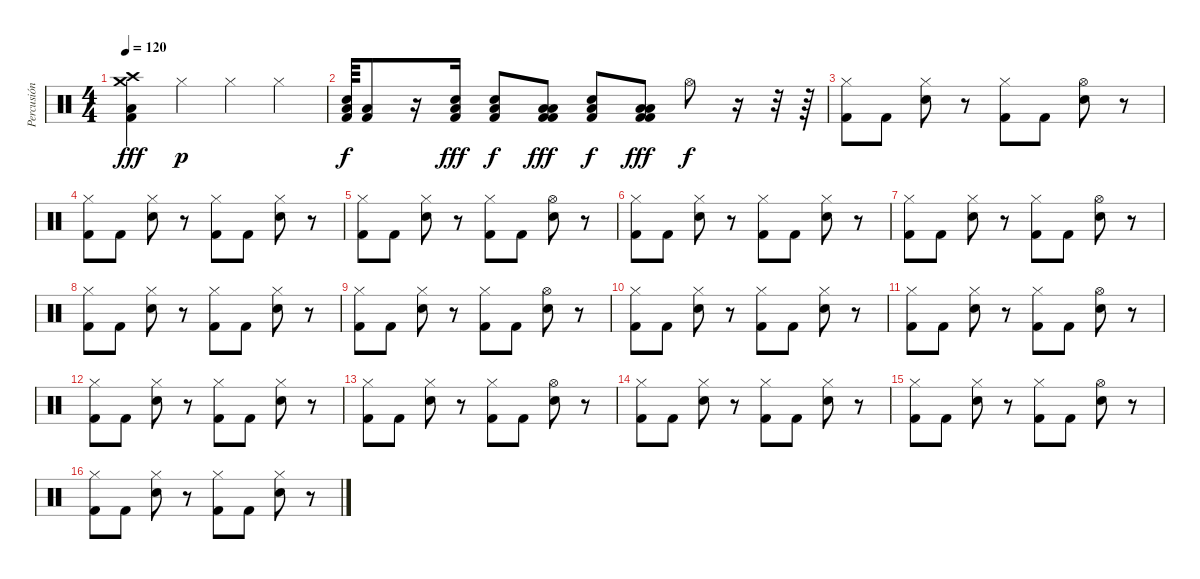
\track ("Percusión" "Percusión") {instrument percussion}
\staff {score}
\articulation defaults
\ts (4 4)
\tempo 120
\clef neutral
\ks c
("Crash high (hit)" "Crash medium (hit)" "Kick (hit) 2" "Low Tom (hit)").4{dy fff} "Hi-Hat (closed)".4{dy p} "Hi-Hat (closed)".4 "Hi-Hat (closed)".4 |
("Electric Snare (hit)" "Low Tom (hit)" "Kick (hit) 2").64{dy f} ("Low Tom (hit)" "Kick (hit) 2").8 r.16 ("Electric Snare (hit)" "Low Tom (hit)" "Kick (hit) 2").16{dy fff} ("Electric Snare (hit)" "Kick (hit) 2" "Low Tom (hit)").8{dy f} ("Kick (hit) 2" "Low Tom (hit)" "Kick (hit) 2" "Low Tom (hit)").8{dy fff} ("Electric Snare (hit)" "Kick (hit) 2" "Low Tom (hit)").8{dy f} ("Low Tom (hit)" "Kick (hit) 2" "Low Tom (hit)" "Kick (hit) 2").8{dy fff} "Hi-Hat (open)".8{dy f} r.16 r.32 r.64 |
("Hi-Hat (closed)" "Kick (hit) 2").8 "Kick (hit) 2".8 ("Electric Snare (hit)" "Hi-Hat (closed)").8 r.8 ("Hi-Hat (closed)" "Kick (hit) 2").8 "Kick (hit) 2".8 ("Electric Snare (hit)" "Hi-Hat (open)").8 r.8 |
("Hi-Hat (closed)" "Kick (hit) 2").8 "Kick (hit) 2".8 ("Electric Snare (hit)" "Hi-Hat (closed)").8 r.8 ("Hi-Hat (closed)" "Kick (hit) 2").8 "Kick (hit) 2".8 ("Electric Snare (hit)" "Hi-Hat (closed)").8 r.8 |
("Hi-Hat (closed)" "Kick (hit) 2").8 "Kick (hit) 2".8 ("Electric Snare (hit)" "Hi-Hat (closed)").8 r.8 ("Hi-Hat (closed)" "Kick (hit) 2").8 "Kick (hit) 2".8 ("Electric Snare (hit)" "Hi-Hat (open)").8 r.8 |
("Hi-Hat (closed)" "Kick (hit) 2").8 "Kick (hit) 2".8 ("Electric Snare (hit)" "Hi-Hat (closed)").8 r.8 ("Hi-Hat (closed)" "Kick (hit) 2").8 "Kick (hit) 2".8 ("Electric Snare (hit)" "Hi-Hat (closed)").8 r.8 |
("Hi-Hat (closed)" "Kick (hit) 2").8 "Kick (hit) 2".8 ("Electric Snare (hit)" "Hi-Hat (closed)").8 r.8 ("Hi-Hat (closed)" "Kick (hit) 2").8 "Kick (hit) 2".8 ("Electric Snare (hit)" "Hi-Hat (open)").8 r.8 |
("Hi-Hat (closed)" "Kick (hit) 2").8 "Kick (hit) 2".8 ("Electric Snare (hit)" "Hi-Hat (closed)").8 r.8 ("Hi-Hat (closed)" "Kick (hit) 2").8 "Kick (hit) 2".8 ("Electric Snare (hit)" "Hi-Hat (closed)").8 r.8 |
("Hi-Hat (closed)" "Kick (hit) 2").8 "Kick (hit) 2".8 ("Electric Snare (hit)" "Hi-Hat (closed)").8 r.8 ("Hi-Hat (closed)" "Kick (hit) 2").8 "Kick (hit) 2".8 ("Electric Snare (hit)" "Hi-Hat (open)").8 r.8 |
("Hi-Hat (closed)" "Kick (hit) 2").8 "Kick (hit) 2".8 ("Electric Snare (hit)" "Hi-Hat (closed)").8 r.8 ("Hi-Hat (closed)" "Kick (hit) 2").8 "Kick (hit) 2".8 ("Electric Snare (hit)" "Hi-Hat (closed)").8 r.8 |
("Hi-Hat (closed)" "Kick (hit) 2").8 "Kick (hit) 2".8 ("Electric Snare (hit)" "Hi-Hat (closed)").8 r.8 ("Hi-Hat (closed)" "Kick (hit) 2").8 "Kick (hit) 2".8 ("Electric Snare (hit)" "Hi-Hat (open)").8 r.8 |
("Hi-Hat (closed)" "Kick (hit) 2").8 "Kick (hit) 2".8 ("Electric Snare (hit)" "Hi-Hat (closed)").8 r.8 ("Hi-Hat (closed)" "Kick (hit) 2").8 "Kick (hit) 2".8 ("Electric Snare (hit)" "Hi-Hat (closed)").8 r.8 |
("Hi-Hat (closed)" "Kick (hit) 2").8 "Kick (hit) 2".8 ("Electric Snare (hit)" "Hi-Hat (closed)").8 r.8 ("Hi-Hat (closed)" "Kick (hit) 2").8 "Kick (hit) 2".8 ("Electric Snare (hit)" "Hi-Hat (open)").8 r.8 |
("Hi-Hat (closed)" "Kick (hit) 2").8 "Kick (hit) 2".8 ("Electric Snare (hit)" "Hi-Hat (closed)").8 r.8 ("Hi-Hat (closed)" "Kick (hit) 2").8 "Kick (hit) 2".8 ("Electric Snare (hit)" "Hi-Hat (closed)").8 r.8 |
("Hi-Hat (closed)" "Kick (hit) 2").8 "Kick (hit) 2".8 ("Electric Snare (hit)" "Hi-Hat (closed)").8 r.8 ("Hi-Hat (closed)" "Kick (hit) 2").8 "Kick (hit) 2".8 ("Electric Snare (hit)" "Hi-Hat (open)").8 r.8 |
("Hi-Hat (closed)" "Kick (hit) 2").8 "Kick (hit) 2".8 ("Electric Snare (hit)" "Hi-Hat (closed)").8 r.8 ("Hi-Hat (closed)" "Kick (hit) 2").8 "Kick (hit) 2".8 ("Electric Snare (hit)" "Hi-Hat (closed)").8 r.8
